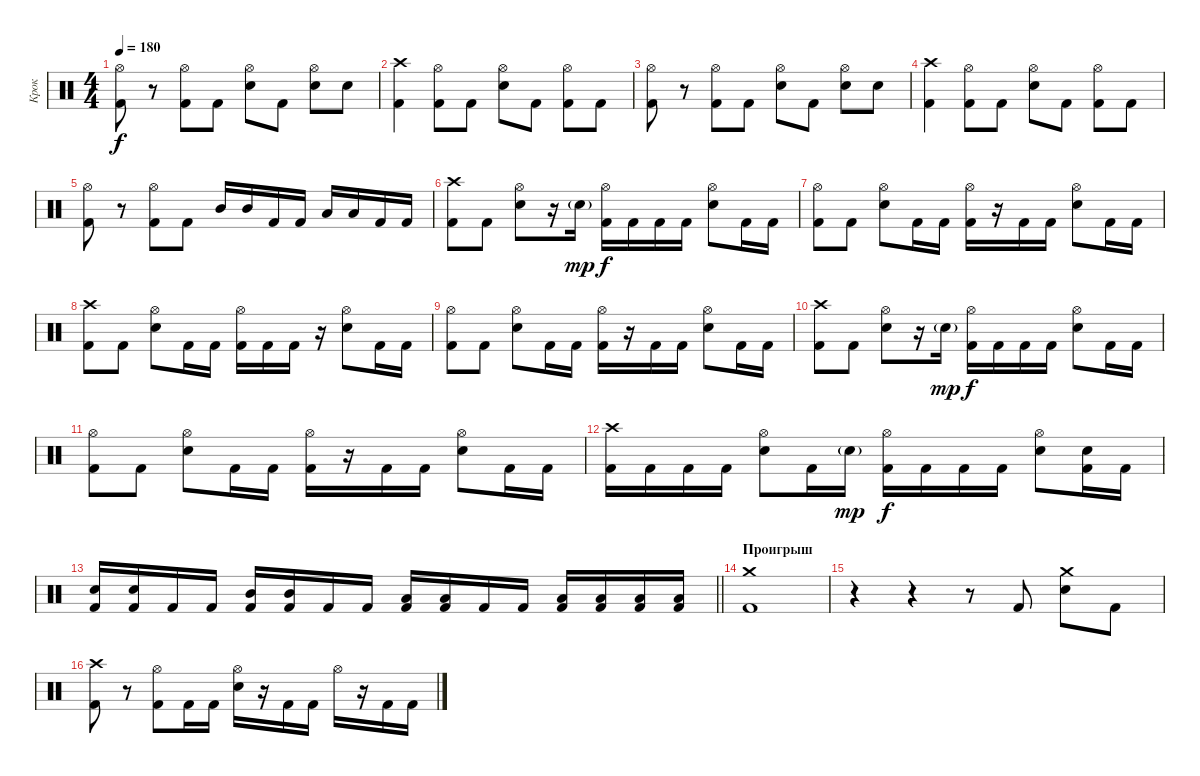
\track ("Крок" "Крок") {instrument percussion}
\staff {score}
\articulation defaults
\ts (4 4)
\tempo 180
\clef neutral
\ks c
("Kick (hit) 2" "Hi-Hat (open)").8{dy f} r.8 ("Kick (hit) 2" "Hi-Hat (open)").8 "Kick (hit) 2".8 ("Electric Snare (hit)" "Hi-Hat (open)").8 "Kick (hit) 2".8 ("Electric Snare (hit)" "Hi-Hat (open)").8 "Electric Snare (hit)".8 |
("Kick (hit) 2" "Crash high (hit)").4 ("Kick (hit) 2" "Hi-Hat (open)").8 "Kick (hit) 2".8 ("Electric Snare (hit)" "Hi-Hat (open)").8 "Kick (hit) 2".8 ("Kick (hit) 2" "Hi-Hat (open)").8 "Kick (hit) 2".8 |
("Kick (hit) 2" "Hi-Hat (open)").8 r.8 ("Kick (hit) 2" "Hi-Hat (open)").8 "Kick (hit) 2".8 ("Electric Snare (hit)" "Hi-Hat (open)").8 "Kick (hit) 2".8 ("Electric Snare (hit)" "Hi-Hat (open)").8 "Electric Snare (hit)".8 |
("Kick (hit) 2" "Crash high (hit)").4 ("Kick (hit) 2" "Hi-Hat (open)").8 "Kick (hit) 2".8 ("Electric Snare (hit)" "Hi-Hat (open)").8 "Kick (hit) 2".8 ("Kick (hit) 2" "Hi-Hat (open)").8 "Kick (hit) 2".8 |
("Kick (hit) 2" "Hi-Hat (open)").8 r.8 ("Kick (hit) 2" "Hi-Hat (open)").8 "Kick (hit) 2".8 "Mid Tom (hit)".16 "Mid Tom (hit)".16 "Kick (hit) 2".16 "Kick (hit) 2".16 "Low Tom (hit)".16 "Low Tom (hit)".16 "Kick (hit) 2".16 "Kick (hit) 2".16 |
("Kick (hit) 2" "Crash high (hit)").8 "Kick (hit) 2".8 ("Electric Snare (hit)" "Hi-Hat (open)").8 r.16 "Electric Snare (hit)"{g}.16{dy mp} ("Kick (hit) 2" "Hi-Hat (open)").16{dy f} "Kick (hit) 2".16 "Kick (hit) 2".16 "Kick (hit) 2".16 ("Electric Snare (hit)" "Hi-Hat (open)").8 "Kick (hit) 2".16 "Kick (hit) 2".16 |
("Kick (hit) 2" "Hi-Hat (open)").8 "Kick (hit) 2".8 ("Electric Snare (hit)" "Hi-Hat (open)").8 "Kick (hit) 2".16 "Kick (hit) 2".16 ("Kick (hit) 2" "Hi-Hat (open)").16 r.16 "Kick (hit) 2".16 "Kick (hit) 2".16 ("Electric Snare (hit)" "Hi-Hat (open)").8 "Kick (hit) 2".16 "Kick (hit) 2".16 |
("Kick (hit) 2" "Crash high (hit)").8 "Kick (hit) 2".8 ("Electric Snare (hit)" "Hi-Hat (open)").8 "Kick (hit) 2".16 "Kick (hit) 2".16 ("Kick (hit) 2" "Hi-Hat (open)").16 "Kick (hit) 2".16 "Kick (hit) 2".16 r.16 ("Electric Snare (hit)" "Hi-Hat (open)").8 "Kick (hit) 2".16 "Kick (hit) 2".16 |
("Kick (hit) 2" "Hi-Hat (open)").8 "Kick (hit) 2".8 ("Electric Snare (hit)" "Hi-Hat (open)").8 "Kick (hit) 2".16 "Kick (hit) 2".16 ("Kick (hit) 2" "Hi-Hat (open)").16 r.16 "Kick (hit) 2".16 "Kick (hit) 2".16 ("Electric Snare (hit)" "Hi-Hat (open)").8 "Kick (hit) 2".16 "Kick (hit) 2".16 |
("Kick (hit) 2" "Crash high (hit)").8 "Kick (hit) 2".8 ("Electric Snare (hit)" "Hi-Hat (open)").8 r.16 "Electric Snare (hit)"{g}.16{dy mp} ("Kick (hit) 2" "Hi-Hat (open)").16{dy f} "Kick (hit) 2".16 "Kick (hit) 2".16 "Kick (hit) 2".16 ("Electric Snare (hit)" "Hi-Hat (open)").8 "Kick (hit) 2".16 "Kick (hit) 2".16 |
("Kick (hit) 2" "Hi-Hat (open)").8 "Kick (hit) 2".8 ("Electric Snare (hit)" "Hi-Hat (open)").8 "Kick (hit) 2".16 "Kick (hit) 2".16 ("Kick (hit) 2" "Hi-Hat (open)").16 r.16 "Kick (hit) 2".16 "Kick (hit) 2".16 ("Electric Snare (hit)" "Hi-Hat (open)").8 "Kick (hit) 2".16 "Kick (hit) 2".16 |
("Kick (hit) 2" "Crash high (hit)").16 "Kick (hit) 2".16 "Kick (hit) 2".16 "Kick (hit) 2".16 ("Electric Snare (hit)" "Hi-Hat (open)").8 "Kick (hit) 2".16 "Electric Snare (hit)"{g}.16{dy mp} ("Kick (hit) 2" "Hi-Hat (open)").16{dy f} "Kick (hit) 2".16 "Kick (hit) 2".16 "Kick (hit) 2".16 ("Electric Snare (hit)" "Hi-Hat (open)").8 ("Kick (hit) 2" "Electric Snare (hit)").16 "Kick (hit) 2".16 |
\barLineRight lightlight
("Electric Snare (hit)" "Kick (hit) 2").16 ("Electric Snare (hit)" "Kick (hit) 2").16 "Kick (hit) 2".16 "Kick (hit) 2".16 ("Mid Tom (hit)" "Kick (hit) 2").16 ("Mid Tom (hit)" "Kick (hit) 2").16 "Kick (hit) 2".16 "Kick (hit) 2".16 ("Low Tom (hit)" "Kick (hit) 2").16 ("Low Tom (hit)" "Kick (hit) 2").16 "Kick (hit) 2".16 "Kick (hit) 2".16 ("Low Floor Tom (hit)" "Kick (hit) 2").16 ("Low Floor Tom (hit)" "Kick (hit) 2").16 ("Low Floor Tom (hit)" "Kick (hit) 2").16 ("Low Floor Tom (hit)" "Kick (hit) 2").16 |
\section ("" "Проигрыш")
("Crash medium (hit)" "Kick (hit) 2").1 |
r.4 r.4 r.8 "Kick (hit) 2".8 ("Crash medium (hit)" "Electric Snare (hit)").8 "Kick (hit) 2".8 |
("Crash high (hit)" "Kick (hit) 2").8 r.8 ("Kick (hit) 2" "Hi-Hat (open)").8 "Kick (hit) 2".16 "Kick (hit) 2".16 ("Electric Snare (hit)" "Hi-Hat (open)").16 r.16 "Kick (hit) 2".16 "Kick (hit) 2".16 "Hi-Hat (open)".16 r.16 "Kick (hit) 2".16 "Kick (hit) 2".16
